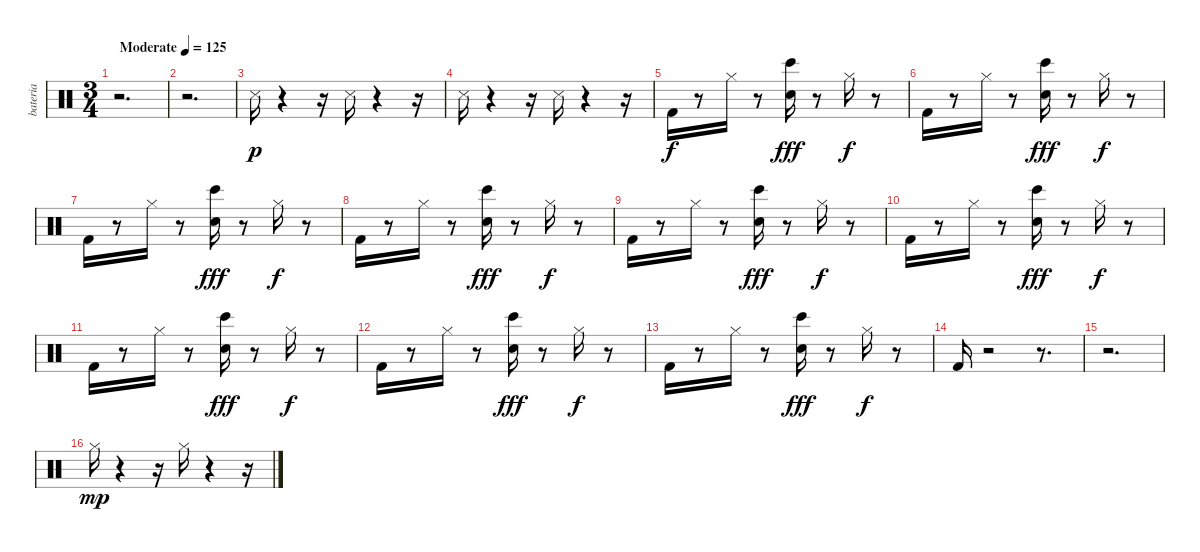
\track ("bateria" "bateria") {instrument percussion}
\staff {score}
\articulation defaults
\ts (3 4)
\tempo (125 "Moderate")
\clef neutral
\ks c
r.2{d dy p} |
r.2{d} |
"Metronome (hit)".16{volume 15 balance 8} r.4 r.16 "Metronome (hit)".16 r.4 r.16 |
"Metronome (hit)".16{volume 15 balance 8} r.4 r.16 "Metronome (hit)".16 r.4 r.16 |
"Kick (hit) 2".16{dy f volume 15 balance 8} r.8 "Hi-Hat (closed)".16 r.8 ("Snare (hit) 2" "Bongo High (hit)").16{dy fff volume 15 balance 8} r.8 "Hi-Hat (closed)".16{dy f} r.8 |
"Kick (hit) 2".16{volume 15 balance 8} r.8 "Hi-Hat (closed)".16 r.8 ("Bongo High (hit)" "Snare (hit) 2").16{dy fff} r.8 "Hi-Hat (closed)".16{dy f volume 15 balance 8} r.8 |
"Kick (hit) 2".16{volume 15 balance 8} r.8 "Hi-Hat (closed)".16 r.8 ("Bongo High (hit)" "Snare (hit) 2").16{dy fff} r.8 "Hi-Hat (closed)".16{dy f volume 15 balance 8} r.8 |
"Kick (hit) 2".16 r.8 "Hi-Hat (closed)".16 r.8 ("Snare (hit) 2" "Bongo High (hit)").16{dy fff volume 15 balance 8} r.8 "Hi-Hat (closed)".16{dy f} r.8 |
"Kick (hit) 2".16{volume 15 balance 8} r.8 "Hi-Hat (closed)".16 r.8 ("Bongo High (hit)" "Snare (hit) 2").16{dy fff} r.8 "Hi-Hat (closed)".16{dy f volume 15 balance 8} r.8 |
"Kick (hit) 2".16{volume 15 balance 8} r.8 "Hi-Hat (closed)".16 r.8 ("Bongo High (hit)" "Snare (hit) 2").16{dy fff} r.8 "Hi-Hat (closed)".16{dy f volume 15 balance 8} r.8 |
"Kick (hit) 2".16 r.8 "Hi-Hat (closed)".16 r.8 ("Snare (hit) 2" "Bongo High (hit)").16{dy fff volume 15 balance 8} r.8 "Hi-Hat (closed)".16{dy f} r.8 |
"Kick (hit) 2".16{volume 15 balance 8} r.8 "Hi-Hat (closed)".16 r.8 ("Bongo High (hit)" "Snare (hit) 2").16{dy fff} r.8 "Hi-Hat (closed)".16{dy f volume 15 balance 8} r.8 |
"Kick (hit) 2".16{volume 15 balance 8} r.8 "Hi-Hat (closed)".16 r.8 ("Bongo High (hit)" "Snare (hit) 2").16{dy fff} r.8 "Hi-Hat (closed)".16{dy f volume 15 balance 8} r.8 |
"Kick (hit) 2".16 r.2 r.8{d} |
r.2{d} |
"Hi-Hat (closed)".16{dy mp volume 15 balance 8} r.4 r.16 "Hi-Hat (closed)".16 r.4 r.16
